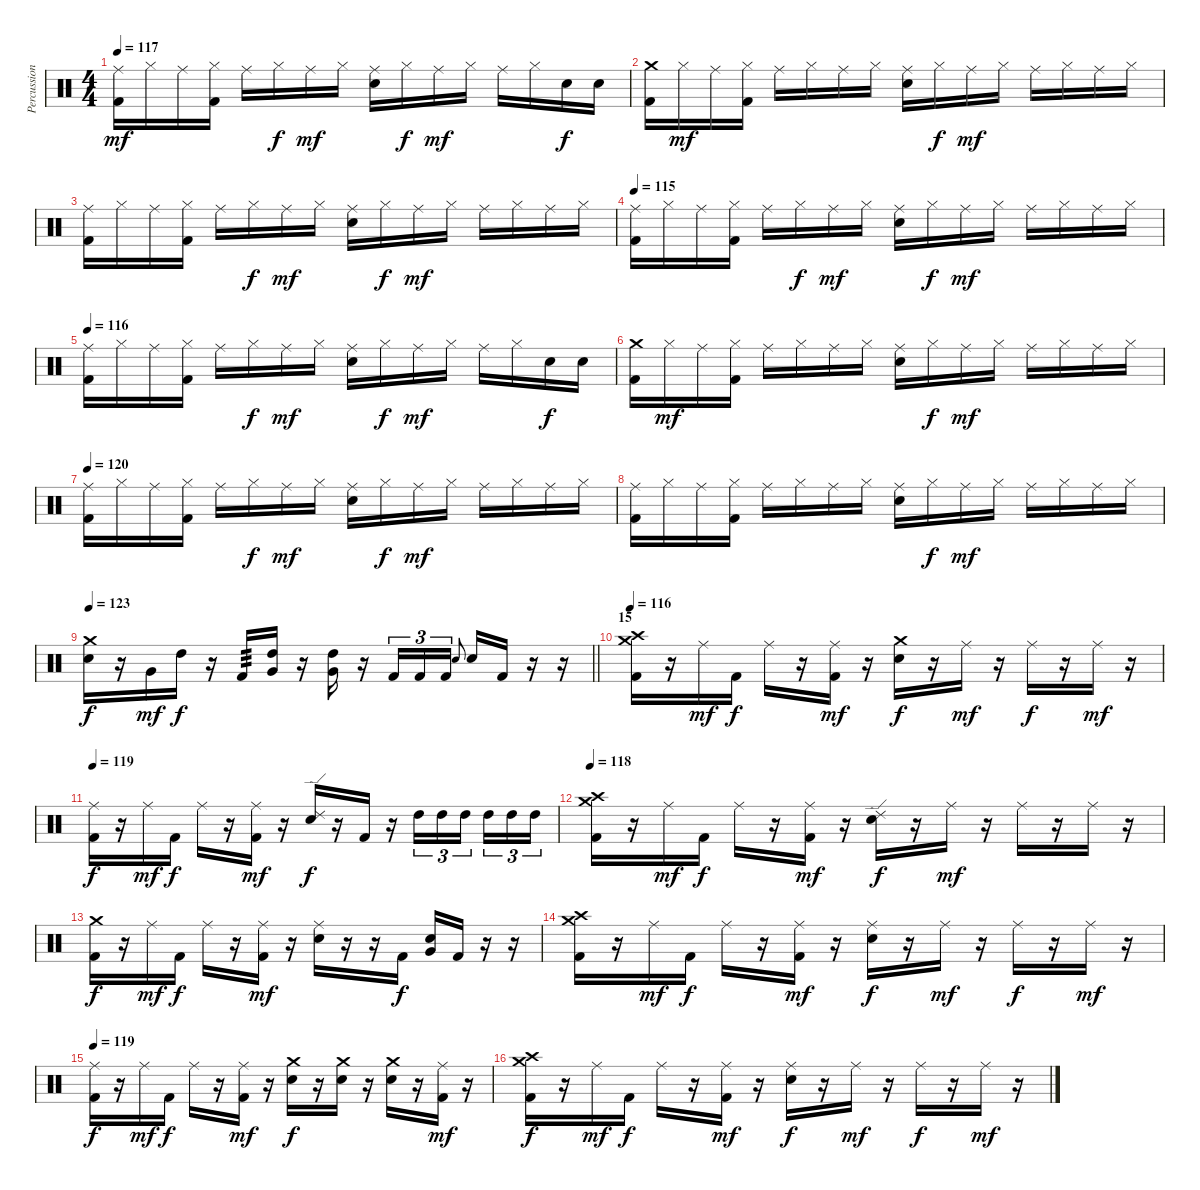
\track ("Percussion" "Percussion") {instrument percussion}
\staff {score}
\articulation defaults
\ts (4 4)
\tempo 117
\clef neutral
\ks c
("Ride (middle)" "Kick (hit) 2").16{dy mf} "Hi-Hat (closed)".16 "Ride (middle)".16 ("Hi-Hat (closed)" "Kick (hit) 2").16 "Ride (middle)".16 "Hi-Hat (closed)".16{dy f} "Ride (middle)".16{dy mf} "Hi-Hat (closed)".16 ("Ride (middle)" "Snare (hit) 2").16 "Hi-Hat (closed)".16{dy f} "Ride (middle)".16{dy mf} "Hi-Hat (closed)".16 "Ride (middle)".16 "Hi-Hat (closed)".16 "Snare (hit) 2".16{dy f} "Snare (hit) 2".16 |
("Crash medium (hit)" "Kick (hit) 2").16 "Hi-Hat (closed)".16{dy mf} "Ride (middle)".16 ("Hi-Hat (closed)" "Kick (hit) 2").16 "Ride (middle)".16 "Hi-Hat (closed)".16 "Ride (middle)".16 "Hi-Hat (closed)".16 ("Ride (middle)" "Snare (hit) 2").16 "Hi-Hat (closed)".16{dy f} "Ride (middle)".16{dy mf} "Hi-Hat (closed)".16 "Ride (middle)".16 "Hi-Hat (closed)".16 "Ride (middle)".16 "Hi-Hat (closed)".16 |
("Ride (middle)" "Kick (hit) 2").16 "Hi-Hat (closed)".16 "Ride (middle)".16 ("Hi-Hat (closed)" "Kick (hit) 2").16 "Ride (middle)".16 "Hi-Hat (closed)".16{dy f} "Ride (middle)".16{dy mf} "Hi-Hat (closed)".16 ("Ride (middle)" "Snare (hit) 2").16 "Hi-Hat (closed)".16{dy f} "Ride (middle)".16{dy mf} "Hi-Hat (closed)".16 "Ride (middle)".16 "Hi-Hat (closed)".16 "Ride (middle)".16 "Hi-Hat (closed)".16 |
\tempo 115
("Ride (middle)" "Kick (hit) 2").16 "Hi-Hat (closed)".16 "Ride (middle)".16 ("Hi-Hat (closed)" "Kick (hit) 2").16 "Ride (middle)".16 "Hi-Hat (closed)".16{dy f} "Ride (middle)".16{dy mf} "Hi-Hat (closed)".16 ("Ride (middle)" "Snare (hit) 2").16 "Hi-Hat (closed)".16{dy f} "Ride (middle)".16{dy mf} "Hi-Hat (closed)".16 "Ride (middle)".16 "Hi-Hat (closed)".16 "Ride (middle)".16 "Hi-Hat (closed)".16 |
\tempo 116
("Ride (middle)" "Kick (hit) 2").16 "Hi-Hat (closed)".16 "Ride (middle)".16 ("Hi-Hat (closed)" "Kick (hit) 2").16 "Ride (middle)".16 "Hi-Hat (closed)".16{dy f} "Ride (middle)".16{dy mf} "Hi-Hat (closed)".16 ("Ride (middle)" "Snare (hit) 2").16 "Hi-Hat (closed)".16{dy f} "Ride (middle)".16{dy mf} "Hi-Hat (closed)".16 "Ride (middle)".16 "Hi-Hat (closed)".16 "Snare (hit) 2".16{dy f} "Snare (hit) 2".16 |
("Crash medium (hit)" "Kick (hit) 2").16 "Hi-Hat (closed)".16{dy mf} "Ride (middle)".16 ("Hi-Hat (closed)" "Kick (hit) 2").16 "Ride (middle)".16 "Hi-Hat (closed)".16 "Ride (middle)".16 "Hi-Hat (closed)".16 ("Ride (middle)" "Snare (hit) 2").16 "Hi-Hat (closed)".16{dy f} "Ride (middle)".16{dy mf} "Hi-Hat (closed)".16 "Ride (middle)".16 "Hi-Hat (closed)".16 "Ride (middle)".16 "Hi-Hat (closed)".16 |
\tempo 120
("Ride (middle)" "Kick (hit) 2").16 "Hi-Hat (closed)".16 "Ride (middle)".16 ("Hi-Hat (closed)" "Kick (hit) 2").16 "Ride (middle)".16 "Hi-Hat (closed)".16{dy f} "Ride (middle)".16{dy mf} "Hi-Hat (closed)".16 ("Ride (middle)" "Snare (hit) 2").16 "Hi-Hat (closed)".16{dy f} "Ride (middle)".16{dy mf} "Hi-Hat (closed)".16 "Ride (middle)".16 "Hi-Hat (closed)".16 "Ride (middle)".16 "Hi-Hat (closed)".16 |
("Ride (middle)" "Kick (hit) 2").16 "Hi-Hat (closed)".16 "Ride (middle)".16 ("Hi-Hat (closed)" "Kick (hit) 2").16 "Ride (middle)".16 "Hi-Hat (closed)".16 "Ride (middle)".16 "Hi-Hat (closed)".16 ("Ride (middle)" "Snare (hit) 2").16 "Hi-Hat (closed)".16{dy f} "Ride (middle)".16{dy mf} "Hi-Hat (closed)".16 "Ride (middle)".16 "Hi-Hat (closed)".16 "Ride (middle)".16 "Hi-Hat (closed)".16 |
\tempo 123
\barLineRight lightlight
("Crash medium (hit)" "Snare (hit) 2").16{dy f} r.16 "Very Low Tom (hit)".16{dy mf} "High Tom (hit)".16{dy f} r.16 "Kick (hit) 2".16{tp 3} ("High Tom (hit)" "Very Low Tom (hit)").16{bu 60} r.16 ("High Tom (hit)" "Very Low Tom (hit)").16{bu 60} r.16 "Kick (hit) 2".16{tu (3 2)} "Kick (hit) 2".16{tu (3 2)} "Kick (hit) 2".16{tu (3 2)} "Snare (hit) 2".8{gr onbeat} "Snare (hit) 2".16 "Kick (hit) 2".16 r.16 r.16 |
\section ("" "15")
\tempo 116
("Crash high (hit)" "Crash medium (hit)" "Kick (hit) 2").16 r.16 "Ride (middle)".16{dy mf} "Kick (hit) 2".16{dy f} "Ride (middle)".16 r.16 ("Ride (middle)" "Kick (hit) 2").16{dy mf} r.16 ("Crash medium (hit)" "Snare (hit) 2").16{dy f} r.16 "Ride (middle)".16{dy mf} r.16 "Ride (middle)".16{dy f} r.16 "Ride (middle)".16{dy mf} r.16 |
\tempo 119
("Ride (middle)" "Kick (hit) 2").16{dy f} r.16 "Ride (middle)".16{dy mf} "Kick (hit) 2".16{dy f} "Ride (middle)".16 r.16 ("Ride (middle)" "Kick (hit) 2").16{dy mf} r.16 ("Ride (edge) 2" "Snare (hit) 2").16{dy f} r.16 "Kick (hit) 2".16 r.16 "High Tom (hit)".16{tu (3 2)} "High Tom (hit)".16{tu (3 2)} "High Tom (hit)".16{tu (3 2) beam splitsecondary} "High Tom (hit)".16{tu (3 2)} "High Tom (hit)".16{tu (3 2)} "High Tom (hit)".16{tu (3 2)} |
\tempo 118
("Crash high (hit)" "Crash medium (hit)" "Kick (hit) 2").16 r.16 "Ride (middle)".16{dy mf} "Kick (hit) 2".16{dy f} "Ride (middle)".16 r.16 ("Ride (middle)" "Kick (hit) 2").16{dy mf} r.16 ("Ride (edge) 2" "Snare (hit) 2").16{dy f} r.16 "Ride (middle)".16{dy mf} r.16 "Ride (middle)".16 r.16 "Ride (middle)".16 r.16 |
("Crash medium (hit)" "Kick (hit) 2").16{dy f} r.16 "Ride (middle)".16{dy mf} "Kick (hit) 2".16{dy f} "Ride (middle)".16 r.16 ("Ride (middle)" "Kick (hit) 2").16{dy mf} r.16 ("Ride (middle)" "Snare (hit) 2").16 r.16 r.16 "Kick (hit) 2".16{dy f} ("Snare (hit) 2" "Very Low Tom (hit)").16{bu 60} "Kick (hit) 2".16 r.16 r.16 |
("Crash high (hit)" "Crash medium (hit)" "Kick (hit) 2").16 r.16 "Ride (middle)".16{dy mf} "Kick (hit) 2".16{dy f} "Ride (middle)".16 r.16 ("Ride (middle)" "Kick (hit) 2").16{dy mf} r.16 ("Ride (middle)" "Snare (hit) 2").16{dy f} r.16 "Ride (middle)".16{dy mf} r.16 "Ride (middle)".16{dy f} r.16 "Ride (middle)".16{dy mf} r.16 |
\tempo 119
("Ride (middle)" "Kick (hit) 2").16{dy f} r.16 "Ride (middle)".16{dy mf} "Kick (hit) 2".16{dy f} "Ride (middle)".16 r.16 ("Ride (middle)" "Kick (hit) 2").16{dy mf} r.16 ("Crash medium (hit)" "Snare (hit) 2").16{dy f} r.16 ("Crash medium (hit)" "Snare (hit) 2").16 r.16 ("Crash medium (hit)" "Snare (hit) 2").16 r.16 ("Ride (middle)" "Kick (hit) 2").16{dy mf} r.16 |
("Crash high (hit)" "Crash medium (hit)" "Kick (hit) 2").16{dy f} r.16 "Ride (middle)".16{dy mf} "Kick (hit) 2".16{dy f} "Ride (middle)".16 r.16 ("Ride (middle)" "Kick (hit) 2").16{dy mf} r.16 ("Ride (middle)" "Snare (hit) 2").16{dy f} r.16 "Ride (middle)".16{dy mf} r.16 "Ride (middle)".16{dy f} r.16 "Ride (middle)".16{dy mf} r.16
